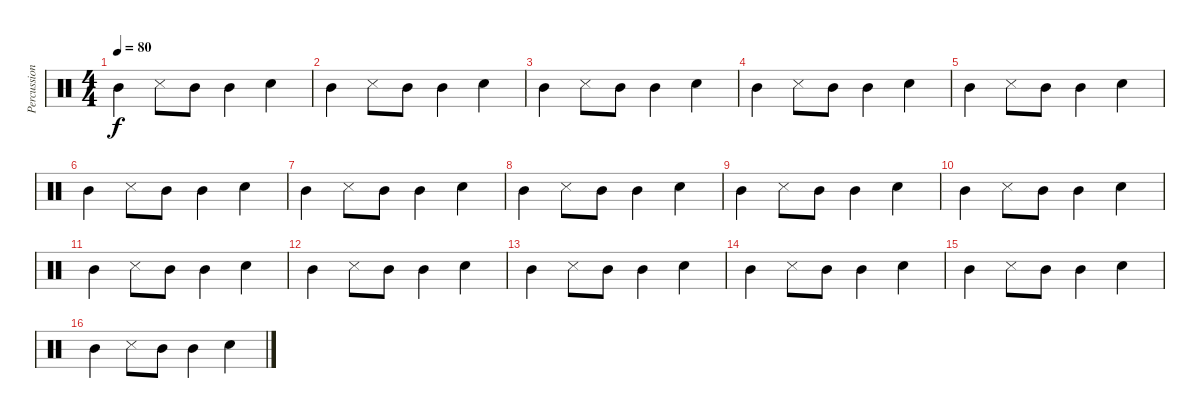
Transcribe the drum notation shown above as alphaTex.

\track ("Percussions" "Percussion") {instrument percussion}
\staff {score}
\articulation defaults
\ts (4 4)
\tempo 80
\clef neutral
\ks c "Mid Tom (hit)".4{dy f} "Snare (side stick) 3".8 "Mid Tom (hit)".8 "Mid Tom (hit)".4 "Electric Snare (hit)".4
|
"Mid Tom (hit)".4 "Snare (side stick) 3".8 "Mid Tom (hit)".8 "Mid Tom (hit)".4 "Electric Snare (hit)".4 |
"Mid Tom (hit)".4 "Snare (side stick) 3".8 "Mid Tom (hit)".8 "Mid Tom (hit)".4 "Electric Snare (hit)".4 |
"Mid Tom (hit)".4 "Snare (side stick) 3".8 "Mid Tom (hit)".8 "Mid Tom (hit)".4 "Electric Snare (hit)".4 |
"Mid Tom (hit)".4 "Snare (side stick) 3".8 "Mid Tom (hit)".8 "Mid Tom (hit)".4 "Electric Snare (hit)".4 |
"Mid Tom (hit)".4 "Snare (side stick) 3".8 "Mid Tom (hit)".8 "Mid Tom (hit)".4 "Electric Snare (hit)".4 |
"Mid Tom (hit)".4 "Snare (side stick) 3".8 "Mid Tom (hit)".8 "Mid Tom (hit)".4 "Electric Snare (hit)".4 |
"Mid Tom (hit)".4 "Snare (side stick) 3".8 "Mid Tom (hit)".8 "Mid Tom (hit)".4 "Electric Snare (hit)".4 |
"Mid Tom (hit)".4 "Snare (side stick) 3".8 "Mid Tom (hit)".8 "Mid Tom (hit)".4 "Electric Snare (hit)".4 |
"Mid Tom (hit)".4 "Snare (side stick) 3".8 "Mid Tom (hit)".8 "Mid Tom (hit)".4 "Electric Snare (hit)".4 |
"Mid Tom (hit)".4 "Snare (side stick) 3".8 "Mid Tom (hit)".8 "Mid Tom (hit)".4 "Electric Snare (hit)".4 |
"Mid Tom (hit)".4 "Snare (side stick) 3".8 "Mid Tom (hit)".8 "Mid Tom (hit)".4 "Electric Snare (hit)".4 |
"Mid Tom (hit)".4 "Snare (side stick) 3".8 "Mid Tom (hit)".8 "Mid Tom (hit)".4 "Electric Snare (hit)".4 |
"Mid Tom (hit)".4 "Snare (side stick) 3".8 "Mid Tom (hit)".8 "Mid Tom (hit)".4 "Electric Snare (hit)".4 |
"Mid Tom (hit)".4 "Snare (side stick) 3".8 "Mid Tom (hit)".8 "Mid Tom (hit)".4 "Electric Snare (hit)".4 |
"Mid Tom (hit)".4 "Snare (side stick) 3".8 "Mid Tom (hit)".8 "Mid Tom (hit)".4 "Electric Snare (hit)".4
